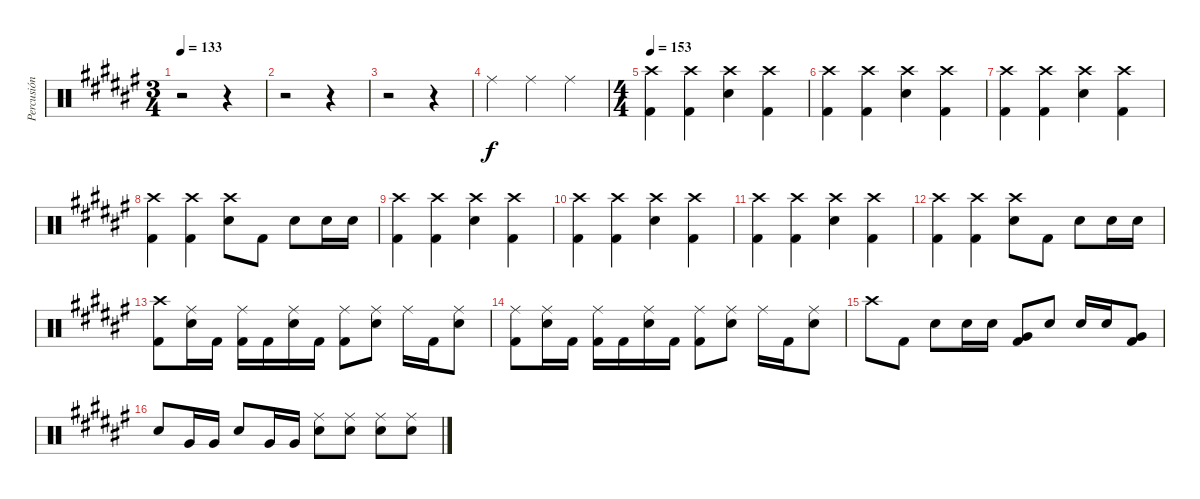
\track ("Percusión" "Percusión") {instrument percussion}
\staff {score}
\articulation defaults
\ts (3 4)
\tempo 133
\clef neutral
\ks d#minor
r.2{dy f} r.4 |
r.2 r.4 |
r.2 r.4 |
"Ride (middle)".4 "Ride (middle)".4 "Ride (middle)".4 |
\ts (4 4)
\tempo 153
("Crash high (hit)" "Kick (hit) 2").4 ("Crash high (hit)" "Kick (hit) 2").4 ("Crash high (hit)" "Snare (hit) 2").4 ("Crash high (hit)" "Kick (hit) 2").4 |
("Crash high (hit)" "Kick (hit) 2").4 ("Crash high (hit)" "Kick (hit) 2").4 ("Crash high (hit)" "Snare (hit) 2").4 ("Crash high (hit)" "Kick (hit) 2").4 |
("Crash high (hit)" "Kick (hit) 2").4 ("Crash high (hit)" "Kick (hit) 2").4 ("Crash high (hit)" "Snare (hit) 2").4 ("Crash high (hit)" "Kick (hit) 2").4 |
("Crash high (hit)" "Kick (hit) 2").4 ("Crash high (hit)" "Kick (hit) 2").4 ("Crash high (hit)" "Snare (hit) 2").8 "Kick (hit) 2".8 "Snare (hit) 2".8 "Snare (hit) 2".16 "Snare (hit) 2".16 |
("Crash high (hit)" "Kick (hit) 2").4 ("Crash high (hit)" "Kick (hit) 2").4 ("Crash high (hit)" "Snare (hit) 2").4 ("Crash high (hit)" "Kick (hit) 2").4 |
("Crash high (hit)" "Kick (hit) 2").4 ("Crash high (hit)" "Kick (hit) 2").4 ("Crash high (hit)" "Snare (hit) 2").4 ("Crash high (hit)" "Kick (hit) 2").4 |
("Crash high (hit)" "Kick (hit) 2").4 ("Crash high (hit)" "Kick (hit) 2").4 ("Crash high (hit)" "Snare (hit) 2").4 ("Crash high (hit)" "Kick (hit) 2").4 |
("Crash high (hit)" "Kick (hit) 2").4 ("Crash high (hit)" "Kick (hit) 2").4 ("Crash high (hit)" "Snare (hit) 2").8 "Kick (hit) 2".8 "Snare (hit) 2".8 "Snare (hit) 2".16 "Snare (hit) 2".16 |
("Crash high (hit)" "Kick (hit) 2").8 ("Ride (middle)" "Snare (hit) 2").16 "Kick (hit) 2".16 ("Ride (middle)" "Kick (hit) 2").16 "Kick (hit) 2".16 ("Ride (middle)" "Snare (hit) 2").16 "Kick (hit) 2".16 ("Ride (middle)" "Kick (hit) 2").8 ("Ride (middle)" "Snare (hit) 2").8 "Ride (middle)".16 "Kick (hit) 2".16 ("Ride (middle)" "Snare (hit) 2").8 |
("Ride (middle)" "Kick (hit) 2").8 ("Ride (middle)" "Snare (hit) 2").16 "Kick (hit) 2".16 ("Ride (middle)" "Kick (hit) 2").16 "Kick (hit) 2".16 ("Ride (middle)" "Snare (hit) 2").16 "Kick (hit) 2".16 ("Ride (middle)" "Kick (hit) 2").8 ("Ride (middle)" "Snare (hit) 2").8 "Ride (middle)".16 "Kick (hit) 2".16 ("Ride (middle)" "Snare (hit) 2").8 |
"Crash high (hit)".8 "Kick (hit) 2".8 "Snare (hit) 2".8 "Snare (hit) 2".16 "Snare (hit) 2".16 ("Very Low Tom (hit)" "Kick (hit) 2").8 "Snare (hit) 2".8 "Snare (hit) 2".16 "Snare (hit) 2".16 ("Very Low Tom (hit)" "Kick (hit) 2").8 |
"Snare (hit) 2".8 "Very Low Tom (hit)".16 "Very Low Tom (hit)".16 "Snare (hit) 2".8 "Very Low Tom (hit)".16 "Very Low Tom (hit)".16 ("Ride (middle)" "Snare (hit) 2").8 ("Ride (middle)" "Snare (hit) 2").8 ("Ride (middle)" "Snare (hit) 2").8 ("Ride (middle)" "Snare (hit) 2").8
